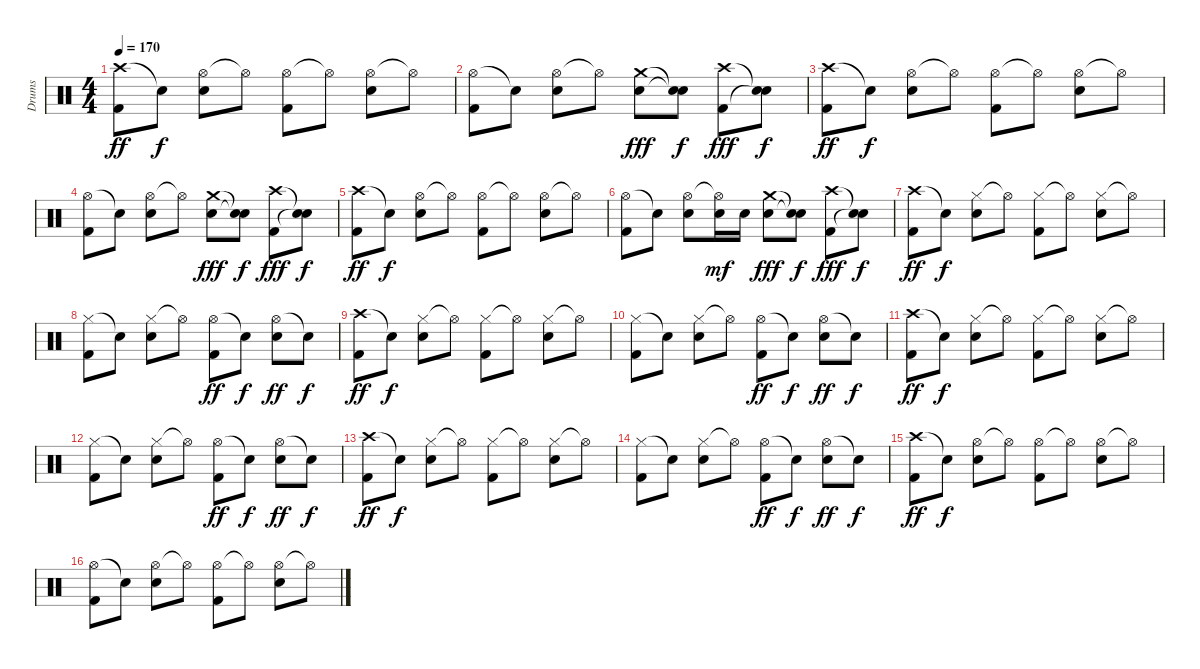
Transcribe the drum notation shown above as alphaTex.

\track ("Drums" "Drums") {instrument percussion}
\staff {score}
\articulation defaults
\ts (4 4)
\tempo 170
\clef neutral
\ks c
("Crash high (hit)" "Kick (hit) 2").8{dy ff} "Snare (hit)"{t}.8{dy f} ("Hi-Hat (open)" "Snare (hit) 2").8 "Hi-Hat (open)"{t}.8 ("Hi-Hat (open)" "Kick (hit) 2").8 "Hi-Hat (open)"{t}.8 ("Hi-Hat (open)" "Snare (hit) 2").8 "Hi-Hat (open)"{t}.8 |
("Hi-Hat (open)" "Kick (hit) 2").8 "Snare (hit)"{t}.8 ("Hi-Hat (open)" "Snare (hit) 2").8 "Hi-Hat (open)"{t}.8 ("Crash medium (hit)" "Snare (hit) 2").8{dy fff} ("Snare (hit)"{t} "Snare (hit)"{t}).8{dy f} ("Crash high (hit)" "Kick (hit) 2").8{dy fff} ("Snare (hit)"{t} "Snare (hit)"{t}).8{dy f} |
("Crash high (hit)" "Kick (hit) 2").8{dy ff} "Snare (hit)"{t}.8{dy f} ("Hi-Hat (open)" "Snare (hit) 2").8 "Hi-Hat (open)"{t}.8 ("Hi-Hat (open)" "Kick (hit) 2").8 "Hi-Hat (open)"{t}.8 ("Hi-Hat (open)" "Snare (hit) 2").8 "Hi-Hat (open)"{t}.8 |
("Hi-Hat (open)" "Kick (hit) 2").8 "Snare (hit)"{t}.8 ("Hi-Hat (open)" "Snare (hit) 2").8 "Hi-Hat (open)"{t}.8 ("Crash medium (hit)" "Snare (hit) 2").8{dy fff} ("Snare (hit)"{t} "Snare (hit)"{t}).8{dy f} ("Crash high (hit)" "Kick (hit) 2").8{dy fff} ("Snare (hit)"{t} "Snare (hit)"{t}).8{dy f} |
("Crash high (hit)" "Kick (hit) 2").8{dy ff} "Snare (hit)"{t}.8{dy f} ("Hi-Hat (open)" "Snare (hit) 2").8 "Hi-Hat (open)"{t}.8 ("Hi-Hat (open)" "Kick (hit) 2").8 "Hi-Hat (open)"{t}.8 ("Hi-Hat (open)" "Snare (hit) 2").8 "Hi-Hat (open)"{t}.8 |
("Hi-Hat (open)" "Kick (hit) 2").8 "Snare (hit)"{t}.8 ("Hi-Hat (open)" "Snare (hit) 2").8 ("Hi-Hat (open)"{t} "Snare (hit) 2").16{dy mf} "Snare (hit) 2".16 ("Crash medium (hit)" "Snare (hit) 2").8{dy fff} ("Snare (hit)"{t} "Snare (hit)"{t}).8{dy f} ("Crash high (hit)" "Kick (hit) 2").8{dy fff} ("Snare (hit)"{t} "Snare (hit)"{t}).8{dy f} |
("Crash high (hit)" "Kick (hit) 2").8{dy ff} "Snare (hit)"{t}.8{dy f} ("Hi-Hat (closed)" "Snare (hit) 2").8 "Hi-Hat (open)"{t}.8 ("Hi-Hat (closed)" "Kick (hit) 2").8 "Hi-Hat (open)"{t}.8 ("Hi-Hat (closed)" "Snare (hit) 2").8 "Hi-Hat (open)"{t}.8 |
("Hi-Hat (closed)" "Kick (hit) 2").8 "Snare (hit)"{t}.8 ("Hi-Hat (closed)" "Snare (hit) 2").8 "Hi-Hat (open)"{t}.8 ("Hi-Hat (open)" "Kick (hit) 2").8{dy ff} "Snare (hit)"{t}.8{dy f} ("Hi-Hat (open)" "Snare (hit) 2").8{dy ff} "Snare (hit)"{t}.8{dy f} |
("Crash high (hit)" "Kick (hit) 2").8{dy ff} "Snare (hit)"{t}.8{dy f} ("Hi-Hat (closed)" "Snare (hit) 2").8 "Hi-Hat (open)"{t}.8 ("Hi-Hat (closed)" "Kick (hit) 2").8 "Hi-Hat (open)"{t}.8 ("Hi-Hat (closed)" "Snare (hit) 2").8 "Hi-Hat (open)"{t}.8 |
("Hi-Hat (closed)" "Kick (hit) 2").8 "Snare (hit)"{t}.8 ("Hi-Hat (closed)" "Snare (hit) 2").8 "Hi-Hat (open)"{t}.8 ("Hi-Hat (open)" "Kick (hit) 2").8{dy ff} "Snare (hit)"{t}.8{dy f} ("Hi-Hat (open)" "Snare (hit) 2").8{dy ff} "Snare (hit)"{t}.8{dy f} |
("Crash high (hit)" "Kick (hit) 2").8{dy ff} "Snare (hit)"{t}.8{dy f} ("Hi-Hat (closed)" "Snare (hit) 2").8 "Hi-Hat (open)"{t}.8 ("Hi-Hat (closed)" "Kick (hit) 2").8 "Hi-Hat (open)"{t}.8 ("Hi-Hat (closed)" "Snare (hit) 2").8 "Hi-Hat (open)"{t}.8 |
("Hi-Hat (closed)" "Kick (hit) 2").8 "Snare (hit)"{t}.8 ("Hi-Hat (closed)" "Snare (hit) 2").8 "Hi-Hat (open)"{t}.8 ("Hi-Hat (open)" "Kick (hit) 2").8{dy ff} "Snare (hit)"{t}.8{dy f} ("Hi-Hat (open)" "Snare (hit) 2").8{dy ff} "Snare (hit)"{t}.8{dy f} |
("Crash high (hit)" "Kick (hit) 2").8{dy ff} "Snare (hit)"{t}.8{dy f} ("Hi-Hat (closed)" "Snare (hit) 2").8 "Hi-Hat (open)"{t}.8 ("Hi-Hat (closed)" "Kick (hit) 2").8 "Hi-Hat (open)"{t}.8 ("Hi-Hat (closed)" "Snare (hit) 2").8 "Hi-Hat (open)"{t}.8 |
("Hi-Hat (closed)" "Kick (hit) 2").8 "Snare (hit)"{t}.8 ("Hi-Hat (closed)" "Snare (hit) 2").8 "Hi-Hat (open)"{t}.8 ("Hi-Hat (open)" "Kick (hit) 2").8{dy ff} "Snare (hit)"{t}.8{dy f} ("Hi-Hat (open)" "Snare (hit) 2").8{dy ff} "Snare (hit)"{t}.8{dy f} |
("Crash high (hit)" "Kick (hit) 2").8{dy ff} "Snare (hit)"{t}.8{dy f} ("Hi-Hat (open)" "Snare (hit) 2").8 "Hi-Hat (open)"{t}.8 ("Hi-Hat (open)" "Kick (hit) 2").8 "Hi-Hat (open)"{t}.8 ("Hi-Hat (open)" "Snare (hit) 2").8 "Hi-Hat (open)"{t}.8 |
("Hi-Hat (open)" "Kick (hit) 2").8 "Snare (hit)"{t}.8 ("Hi-Hat (open)" "Snare (hit) 2").8 "Hi-Hat (open)"{t}.8 ("Hi-Hat (open)" "Kick (hit) 2").8 "Hi-Hat (open)"{t}.8 ("Hi-Hat (open)" "Snare (hit) 2").8 "Hi-Hat (open)"{t}.8
